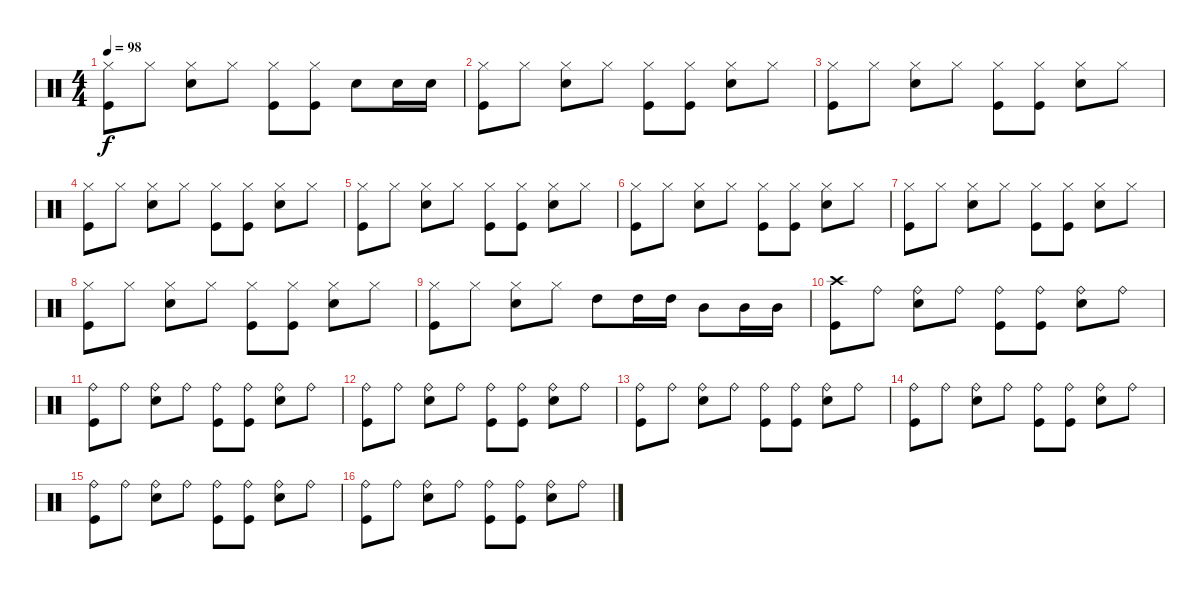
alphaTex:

\track "" {instrument percussion}
\staff {score}
\articulation defaults
\ts (4 4)
\tempo 98
\clef neutral
\ks c
("Hi-Hat (closed)" "Kick (hit)").8{dy f} "Hi-Hat (closed)".8 ("Hi-Hat (closed)" "Snare (hit) 2").8 "Hi-Hat (closed)".8 ("Hi-Hat (closed)" "Kick (hit)").8 ("Hi-Hat (closed)" "Kick (hit)").8 "Snare (hit) 2".8 "Snare (hit) 2".16 "Snare (hit) 2".16 |
("Hi-Hat (closed)" "Kick (hit)").8 "Hi-Hat (closed)".8 ("Hi-Hat (closed)" "Snare (hit) 2").8 "Hi-Hat (closed)".8 ("Hi-Hat (closed)" "Kick (hit)").8 ("Hi-Hat (closed)" "Kick (hit)").8 ("Hi-Hat (closed)" "Snare (hit) 2").8 "Hi-Hat (closed)".8 |
("Hi-Hat (closed)" "Kick (hit)").8 "Hi-Hat (closed)".8 ("Hi-Hat (closed)" "Snare (hit) 2").8 "Hi-Hat (closed)".8 ("Hi-Hat (closed)" "Kick (hit)").8 ("Hi-Hat (closed)" "Kick (hit)").8 ("Hi-Hat (closed)" "Snare (hit) 2").8 "Hi-Hat (closed)".8 |
("Hi-Hat (closed)" "Kick (hit)").8 "Hi-Hat (closed)".8 ("Hi-Hat (closed)" "Snare (hit) 2").8 "Hi-Hat (closed)".8 ("Hi-Hat (closed)" "Kick (hit)").8 ("Hi-Hat (closed)" "Kick (hit)").8 ("Hi-Hat (closed)" "Snare (hit) 2").8 "Hi-Hat (closed)".8 |
("Hi-Hat (closed)" "Kick (hit)").8 "Hi-Hat (closed)".8 ("Hi-Hat (closed)" "Snare (hit) 2").8 "Hi-Hat (closed)".8 ("Hi-Hat (closed)" "Kick (hit)").8 ("Hi-Hat (closed)" "Kick (hit)").8 ("Hi-Hat (closed)" "Snare (hit) 2").8 "Hi-Hat (closed)".8 |
("Hi-Hat (closed)" "Kick (hit)").8 "Hi-Hat (closed)".8 ("Hi-Hat (closed)" "Snare (hit) 2").8 "Hi-Hat (closed)".8 ("Hi-Hat (closed)" "Kick (hit)").8 ("Hi-Hat (closed)" "Kick (hit)").8 ("Hi-Hat (closed)" "Snare (hit) 2").8 "Hi-Hat (closed)".8 |
("Hi-Hat (closed)" "Kick (hit)").8 "Hi-Hat (closed)".8 ("Hi-Hat (closed)" "Snare (hit) 2").8 "Hi-Hat (closed)".8 ("Hi-Hat (closed)" "Kick (hit)").8 ("Hi-Hat (closed)" "Kick (hit)").8 ("Hi-Hat (closed)" "Snare (hit) 2").8 "Hi-Hat (closed)".8 |
("Hi-Hat (closed)" "Kick (hit)").8 "Hi-Hat (closed)".8 ("Hi-Hat (closed)" "Snare (hit) 2").8 "Hi-Hat (closed)".8 ("Hi-Hat (closed)" "Kick (hit)").8 ("Hi-Hat (closed)" "Kick (hit)").8 ("Hi-Hat (closed)" "Snare (hit) 2").8 "Hi-Hat (closed)".8 |
("Hi-Hat (closed)" "Kick (hit)").8 "Hi-Hat (closed)".8 ("Hi-Hat (closed)" "Snare (hit) 2").8 "Hi-Hat (closed)".8 "High Tom (hit)".8 "High Tom (hit)".16 "High Tom (hit)".16 "Mid Tom (hit)".8 "Mid Tom (hit)".16 "Mid Tom (hit)".16 |
("Crash high (hit)" "Kick (hit)").8 "Ride (bell)".8 ("Ride (bell)" "Snare (hit) 2").8 "Ride (bell)".8 ("Ride (bell)" "Kick (hit)").8 ("Ride (bell)" "Kick (hit)").8 ("Ride (bell)" "Snare (hit) 2").8 "Ride (bell)".8 |
("Ride (bell)" "Kick (hit)").8 "Ride (bell)".8 ("Ride (bell)" "Snare (hit) 2").8 "Ride (bell)".8 ("Ride (bell)" "Kick (hit)").8 ("Ride (bell)" "Kick (hit)").8 ("Ride (bell)" "Snare (hit) 2").8 "Ride (bell)".8 |
("Ride (bell)" "Kick (hit)").8 "Ride (bell)".8 ("Ride (bell)" "Snare (hit) 2").8 "Ride (bell)".8 ("Ride (bell)" "Kick (hit)").8 ("Ride (bell)" "Kick (hit)").8 ("Ride (bell)" "Snare (hit) 2").8 "Ride (bell)".8 |
("Ride (bell)" "Kick (hit)").8 "Ride (bell)".8 ("Ride (bell)" "Snare (hit) 2").8 "Ride (bell)".8 ("Ride (bell)" "Kick (hit)").8 ("Ride (bell)" "Kick (hit)").8 ("Ride (bell)" "Snare (hit) 2").8 "Ride (bell)".8 |
("Ride (bell)" "Kick (hit)").8 "Ride (bell)".8 ("Ride (bell)" "Snare (hit) 2").8 "Ride (bell)".8 ("Ride (bell)" "Kick (hit)").8 ("Ride (bell)" "Kick (hit)").8 ("Ride (bell)" "Snare (hit) 2").8 "Ride (bell)".8 |
("Ride (bell)" "Kick (hit)").8 "Ride (bell)".8 ("Ride (bell)" "Snare (hit) 2").8 "Ride (bell)".8 ("Ride (bell)" "Kick (hit)").8 ("Ride (bell)" "Kick (hit)").8 ("Ride (bell)" "Snare (hit) 2").8 "Ride (bell)".8 |
("Ride (bell)" "Kick (hit)").8 "Ride (bell)".8 ("Ride (bell)" "Snare (hit) 2").8 "Ride (bell)".8 ("Ride (bell)" "Kick (hit)").8 ("Ride (bell)" "Kick (hit)").8 ("Ride (bell)" "Snare (hit) 2").8 "Ride (bell)".8
